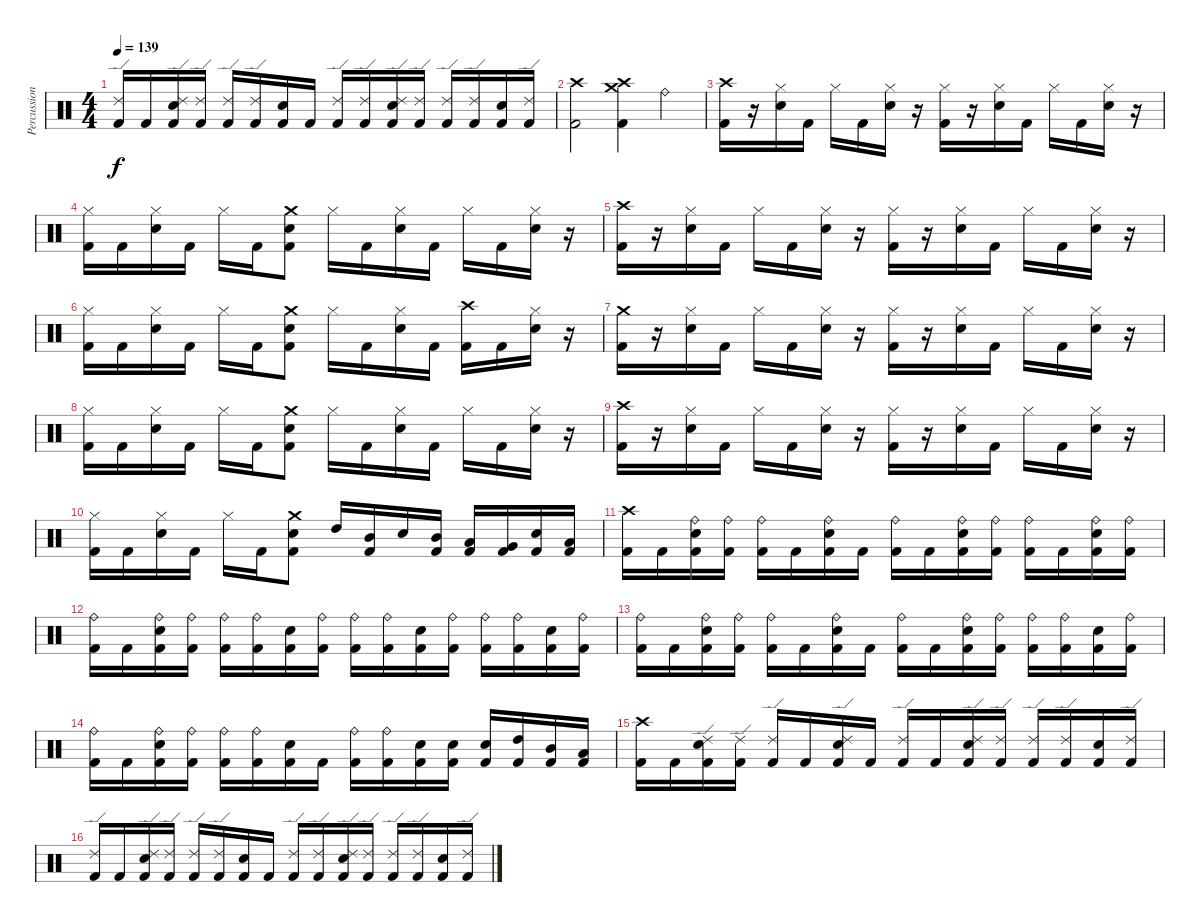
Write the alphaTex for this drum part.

\track ("Percussion" "Percussion") {instrument percussion}
\staff {score}
\articulation defaults
\ts (4 4)
\tempo 139
\clef neutral
\ks c
("Ride (edge) 2" "Kick (hit) 2").16{dy f} "Kick (hit) 2".16 ("Ride (edge) 2" "Electric Snare (hit)" "Kick (hit) 2").16 ("Ride (edge) 2" "Kick (hit) 2").16 ("Ride (edge) 2" "Kick (hit) 2").16 ("Ride (edge) 2" "Kick (hit) 2").16 ("Electric Snare (hit)" "Kick (hit) 2").16 "Kick (hit) 2".16 ("Ride (edge) 2" "Kick (hit) 2").16 ("Ride (edge) 2" "Kick (hit) 2").16 ("Ride (edge) 2" "Electric Snare (hit)" "Kick (hit) 2").16 ("Ride (edge) 2" "Kick (hit) 2").16 ("Ride (edge) 2" "Kick (hit) 2").16 ("Ride (edge) 2" "Kick (hit) 2").16 ("Electric Snare (hit)" "Kick (hit) 2").16 ("Ride (edge) 2" "Kick (hit) 2").16 |
("Crash high (hit)" "Kick (hit) 2").2 ("Crash high (hit)" "Crash medium (hit)" "Kick (hit) 2").4 "Ride (bell)".4 |
("Crash high (hit)" "Kick (hit) 2").16 r.16 ("Hi-Hat (closed)" "Electric Snare (hit)").16 "Kick (hit) 2".16 "Hi-Hat (closed)".16 "Kick (hit) 2".16 ("Hi-Hat (closed)" "Electric Snare (hit)").16 r.16 ("Hi-Hat (closed)" "Kick (hit) 2").16 r.16 ("Hi-Hat (closed)" "Electric Snare (hit)").16 "Kick (hit) 2".16 "Hi-Hat (closed)".16 "Kick (hit) 2".16 ("Hi-Hat (closed)" "Electric Snare (hit)").16 r.16 |
("Hi-Hat (closed)" "Kick (hit) 2").16 "Kick (hit) 2".16 ("Hi-Hat (closed)" "Electric Snare (hit)").16 "Kick (hit) 2".16 "Hi-Hat (closed)".16 "Kick (hit) 2".16 ("Crash medium (hit)" "Electric Snare (hit)" "Kick (hit) 2").8 "Hi-Hat (closed)".16 "Kick (hit) 2".16 ("Hi-Hat (closed)" "Electric Snare (hit)").16 "Kick (hit) 2".16 "Hi-Hat (closed)".16 "Kick (hit) 2".16 ("Hi-Hat (closed)" "Electric Snare (hit)").16 r.16 |
("Crash high (hit)" "Kick (hit) 2").16 r.16 ("Hi-Hat (closed)" "Electric Snare (hit)").16 "Kick (hit) 2".16 "Hi-Hat (closed)".16 "Kick (hit) 2".16 ("Hi-Hat (closed)" "Electric Snare (hit)").16 r.16 ("Hi-Hat (closed)" "Kick (hit) 2").16 r.16 ("Hi-Hat (closed)" "Electric Snare (hit)").16 "Kick (hit) 2".16 "Hi-Hat (closed)".16 "Kick (hit) 2".16 ("Hi-Hat (closed)" "Electric Snare (hit)").16 r.16 |
("Hi-Hat (closed)" "Kick (hit) 2").16 "Kick (hit) 2".16 ("Hi-Hat (closed)" "Electric Snare (hit)").16 "Kick (hit) 2".16 "Hi-Hat (closed)".16 "Kick (hit) 2".16 ("Crash medium (hit)" "Electric Snare (hit)" "Kick (hit) 2").8 "Hi-Hat (closed)".16 "Kick (hit) 2".16 ("Hi-Hat (closed)" "Electric Snare (hit)").16 "Kick (hit) 2".16 ("Crash high (hit)" "Kick (hit) 2").16 "Kick (hit) 2".16 ("Hi-Hat (closed)" "Electric Snare (hit)").16 r.16 |
("Crash medium (hit)" "Kick (hit) 2").16 r.16 ("Hi-Hat (closed)" "Electric Snare (hit)").16 "Kick (hit) 2".16 "Hi-Hat (closed)".16 "Kick (hit) 2".16 ("Hi-Hat (closed)" "Electric Snare (hit)").16 r.16 ("Hi-Hat (closed)" "Kick (hit) 2").16 r.16 ("Hi-Hat (closed)" "Electric Snare (hit)").16 "Kick (hit) 2".16 "Hi-Hat (closed)".16 "Kick (hit) 2".16 ("Hi-Hat (closed)" "Electric Snare (hit)").16 r.16 |
("Hi-Hat (closed)" "Kick (hit) 2").16 "Kick (hit) 2".16 ("Hi-Hat (closed)" "Electric Snare (hit)").16 "Kick (hit) 2".16 "Hi-Hat (closed)".16 "Kick (hit) 2".16 ("Crash medium (hit)" "Electric Snare (hit)" "Kick (hit) 2").8 "Hi-Hat (closed)".16 "Kick (hit) 2".16 ("Hi-Hat (closed)" "Electric Snare (hit)").16 "Kick (hit) 2".16 "Hi-Hat (closed)".16 "Kick (hit) 2".16 ("Hi-Hat (closed)" "Electric Snare (hit)").16 r.16 |
("Crash high (hit)" "Kick (hit) 2").16 r.16 ("Hi-Hat (closed)" "Electric Snare (hit)").16 "Kick (hit) 2".16 "Hi-Hat (closed)".16 "Kick (hit) 2".16 ("Hi-Hat (closed)" "Electric Snare (hit)").16 r.16 ("Hi-Hat (closed)" "Kick (hit) 2").16 r.16 ("Hi-Hat (closed)" "Electric Snare (hit)").16 "Kick (hit) 2".16 "Hi-Hat (closed)".16 "Kick (hit) 2".16 ("Hi-Hat (closed)" "Electric Snare (hit)").16 r.16 |
("Hi-Hat (closed)" "Kick (hit) 2").16 "Kick (hit) 2".16 ("Hi-Hat (closed)" "Electric Snare (hit)").16 "Kick (hit) 2".16 "Hi-Hat (closed)".16 "Kick (hit) 2".16 ("Crash medium (hit)" "Electric Snare (hit)" "Kick (hit) 2").8 "High Tom (hit)".16 ("Mid Tom (hit)" "Kick (hit) 2").16 "Electric Snare (hit)".16 ("Mid Tom (hit)" "Kick (hit) 2").16 ("Low Tom (hit)" "Kick (hit) 2").16 ("Very Low Tom (hit)" "Kick (hit) 2").16 ("Electric Snare (hit)" "Kick (hit) 2").16 ("Low Tom (hit)" "Kick (hit) 2").16 |
("Crash high (hit)" "Kick (hit) 2").16 "Kick (hit) 2".16 ("Ride (bell)" "Electric Snare (hit)" "Kick (hit) 2").16 ("Ride (bell)" "Kick (hit) 2").16 ("Ride (bell)" "Kick (hit) 2").16 "Kick (hit) 2".16 ("Ride (bell)" "Electric Snare (hit)" "Kick (hit) 2").16 "Kick (hit) 2".16 ("Ride (bell)" "Kick (hit) 2").16 "Kick (hit) 2".16 ("Ride (bell)" "Electric Snare (hit)" "Kick (hit) 2").16 ("Ride (bell)" "Kick (hit) 2").16 ("Ride (bell)" "Kick (hit) 2").16 "Kick (hit) 2".16 ("Ride (bell)" "Electric Snare (hit)" "Kick (hit) 2").16 ("Ride (bell)" "Kick (hit) 2").16 |
("Ride (bell)" "Kick (hit) 2").16 "Kick (hit) 2".16 ("Ride (bell)" "Electric Snare (hit)" "Kick (hit) 2").16 ("Ride (bell)" "Kick (hit) 2").16 ("Ride (bell)" "Kick (hit) 2").16 ("Ride (bell)" "Kick (hit) 2").16 ("Electric Snare (hit)" "Kick (hit) 2").16 ("Ride (bell)" "Kick (hit) 2").16 ("Ride (bell)" "Kick (hit) 2").16 ("Ride (bell)" "Kick (hit) 2").16 ("Electric Snare (hit)" "Kick (hit) 2").16 ("Ride (bell)" "Kick (hit) 2").16 ("Ride (bell)" "Kick (hit) 2").16 ("Ride (bell)" "Kick (hit) 2").16 ("Electric Snare (hit)" "Kick (hit) 2").16 ("Ride (bell)" "Kick (hit) 2").16 |
("Ride (bell)" "Kick (hit) 2").16 "Kick (hit) 2".16 ("Ride (bell)" "Electric Snare (hit)" "Kick (hit) 2").16 ("Ride (bell)" "Kick (hit) 2").16 ("Ride (bell)" "Kick (hit) 2").16 "Kick (hit) 2".16 ("Ride (bell)" "Electric Snare (hit)" "Kick (hit) 2").16 "Kick (hit) 2".16 ("Ride (bell)" "Kick (hit) 2").16 "Kick (hit) 2".16 ("Ride (bell)" "Electric Snare (hit)" "Kick (hit) 2").16 ("Ride (bell)" "Kick (hit) 2").16 ("Ride (bell)" "Kick (hit) 2").16 ("Ride (bell)" "Kick (hit) 2").16 ("Electric Snare (hit)" "Kick (hit) 2").16 ("Ride (bell)" "Kick (hit) 2").16 |
("Ride (bell)" "Kick (hit) 2").16 "Kick (hit) 2".16 ("Ride (bell)" "Electric Snare (hit)" "Kick (hit) 2").16 ("Ride (bell)" "Kick (hit) 2").16 ("Ride (bell)" "Kick (hit) 2").16 ("Ride (bell)" "Kick (hit) 2").16 ("Electric Snare (hit)" "Kick (hit) 2").16 "Kick (hit) 2".16 ("Ride (bell)" "Kick (hit) 2").16 ("Ride (bell)" "Kick (hit) 2").16 ("Electric Snare (hit)" "Kick (hit) 2").16 ("Electric Snare (hit)" "Kick (hit) 2").16 ("Electric Snare (hit)" "Kick (hit) 2").16 ("High Tom (hit)" "Kick (hit) 2").16 ("Mid Tom (hit)" "Kick (hit) 2").16 ("Low Tom (hit)" "Kick (hit) 2").16 |
("Crash high (hit)" "Kick (hit) 2").16 "Kick (hit) 2".16 ("Ride (edge) 2" "Electric Snare (hit)" "Kick (hit) 2").16 ("Ride (edge) 2" "Kick (hit) 2").16 ("Ride (edge) 2" "Kick (hit) 2").16 "Kick (hit) 2".16 ("Ride (edge) 2" "Electric Snare (hit)" "Kick (hit) 2").16 "Kick (hit) 2".16 ("Ride (edge) 2" "Kick (hit) 2").16 "Kick (hit) 2".16 ("Ride (edge) 2" "Electric Snare (hit)" "Kick (hit) 2").16 ("Ride (edge) 2" "Kick (hit) 2").16 ("Ride (edge) 2" "Kick (hit) 2").16 ("Ride (edge) 2" "Kick (hit) 2").16 ("Electric Snare (hit)" "Kick (hit) 2").16 ("Ride (edge) 2" "Kick (hit) 2").16 |
("Ride (edge) 2" "Kick (hit) 2").16 "Kick (hit) 2".16 ("Ride (edge) 2" "Electric Snare (hit)" "Kick (hit) 2").16 ("Ride (edge) 2" "Kick (hit) 2").16 ("Ride (edge) 2" "Kick (hit) 2").16 ("Ride (edge) 2" "Kick (hit) 2").16 ("Electric Snare (hit)" "Kick (hit) 2").16 "Kick (hit) 2".16 ("Ride (edge) 2" "Kick (hit) 2").16 ("Ride (edge) 2" "Kick (hit) 2").16 ("Ride (edge) 2" "Electric Snare (hit)" "Kick (hit) 2").16 ("Ride (edge) 2" "Kick (hit) 2").16 ("Ride (edge) 2" "Kick (hit) 2").16 ("Ride (edge) 2" "Kick (hit) 2").16 ("Electric Snare (hit)" "Kick (hit) 2").16 ("Ride (edge) 2" "Kick (hit) 2").16
